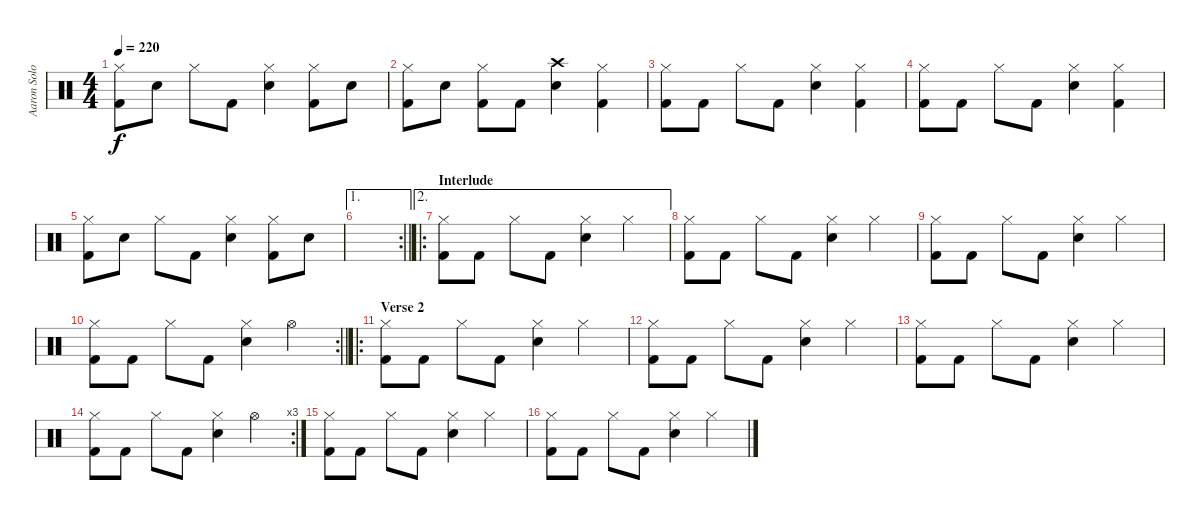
\track ("Aaron Solowoniuk" "Aaron Solo") {instrument percussion}
\staff {score}
\articulation defaults
\ts (4 4)
\tempo 220
\clef neutral
\ks c
("Hi-Hat (closed)" "Kick (hit) 2").8{dy f} "Snare (hit) 2".8 "Hi-Hat (closed)".8 "Kick (hit) 2".8 ("Hi-Hat (closed)" "Snare (hit) 2").4 ("Hi-Hat (closed)" "Kick (hit) 2").8 "Snare (hit) 2".8 |
("Hi-Hat (closed)" "Kick (hit) 2").8 "Snare (hit) 2".8 ("Hi-Hat (closed)" "Kick (hit) 2").8 "Kick (hit) 2".8 ("Crash high (hit)" "Snare (hit) 2").4 ("Hi-Hat (closed)" "Kick (hit) 2").4 |
("Hi-Hat (closed)" "Kick (hit) 2").8 "Kick (hit) 2".8 "Hi-Hat (closed)".8 "Kick (hit) 2".8 ("Hi-Hat (closed)" "Snare (hit) 2").4 ("Hi-Hat (closed)" "Kick (hit) 2").4 |
("Hi-Hat (closed)" "Kick (hit) 2").8 "Kick (hit) 2".8 "Hi-Hat (closed)".8 "Kick (hit) 2".8 ("Hi-Hat (closed)" "Snare (hit) 2").4 ("Hi-Hat (closed)" "Kick (hit) 2").4 |
("Hi-Hat (closed)" "Kick (hit) 2").8 "Snare (hit) 2".8 "Hi-Hat (closed)".8 "Kick (hit) 2".8 ("Hi-Hat (closed)" "Snare (hit) 2").4 ("Hi-Hat (closed)" "Kick (hit) 2").8 "Snare (hit) 2".8 |
\ae 1
\rc 2
\barLineRight lightlight
|
\ae 2
\ro
\section ("" "Interlude")
("Hi-Hat (closed)" "Kick (hit) 2").8 "Kick (hit) 2".8 "Hi-Hat (closed)".8 "Kick (hit) 2".8 ("Hi-Hat (closed)" "Snare (hit) 2").4 "Hi-Hat (closed)".4 |
("Hi-Hat (closed)" "Kick (hit) 2").8 "Kick (hit) 2".8 "Hi-Hat (closed)".8 "Kick (hit) 2".8 ("Hi-Hat (closed)" "Snare (hit) 2").4 "Hi-Hat (closed)".4 |
("Hi-Hat (closed)" "Kick (hit) 2").8 "Kick (hit) 2".8 "Hi-Hat (closed)".8 "Kick (hit) 2".8 ("Hi-Hat (closed)" "Snare (hit) 2").4 "Hi-Hat (closed)".4 |
\rc 2
\barLineRight lightlight
("Hi-Hat (closed)" "Kick (hit) 2").8 "Kick (hit) 2".8 "Hi-Hat (closed)".8 "Kick (hit) 2".8 ("Hi-Hat (closed)" "Snare (hit) 2").4 "Hi-Hat (open)".4 |
\ro
\section ("" "Verse 2")
("Hi-Hat (closed)" "Kick (hit) 2").8 "Kick (hit) 2".8 "Hi-Hat (closed)".8 "Kick (hit) 2".8 ("Hi-Hat (closed)" "Snare (hit) 2").4 "Hi-Hat (closed)".4 |
("Hi-Hat (closed)" "Kick (hit) 2").8 "Kick (hit) 2".8 "Hi-Hat (closed)".8 "Kick (hit) 2".8 ("Hi-Hat (closed)" "Snare (hit) 2").4 "Hi-Hat (closed)".4 |
("Hi-Hat (closed)" "Kick (hit) 2").8 "Kick (hit) 2".8 "Hi-Hat (closed)".8 "Kick (hit) 2".8 ("Hi-Hat (closed)" "Snare (hit) 2").4 "Hi-Hat (closed)".4 |
\rc 3
("Hi-Hat (closed)" "Kick (hit) 2").8 "Kick (hit) 2".8 "Hi-Hat (closed)".8 "Kick (hit) 2".8 ("Hi-Hat (closed)" "Snare (hit) 2").4 "Hi-Hat (open)".4 |
("Hi-Hat (closed)" "Kick (hit) 2").8 "Kick (hit) 2".8 "Hi-Hat (closed)".8 "Kick (hit) 2".8 ("Hi-Hat (closed)" "Snare (hit) 2").4 "Hi-Hat (closed)".4 |
("Hi-Hat (closed)" "Kick (hit) 2").8 "Kick (hit) 2".8 "Hi-Hat (closed)".8 "Kick (hit) 2".8 ("Hi-Hat (closed)" "Snare (hit) 2").4 "Hi-Hat (closed)".4
